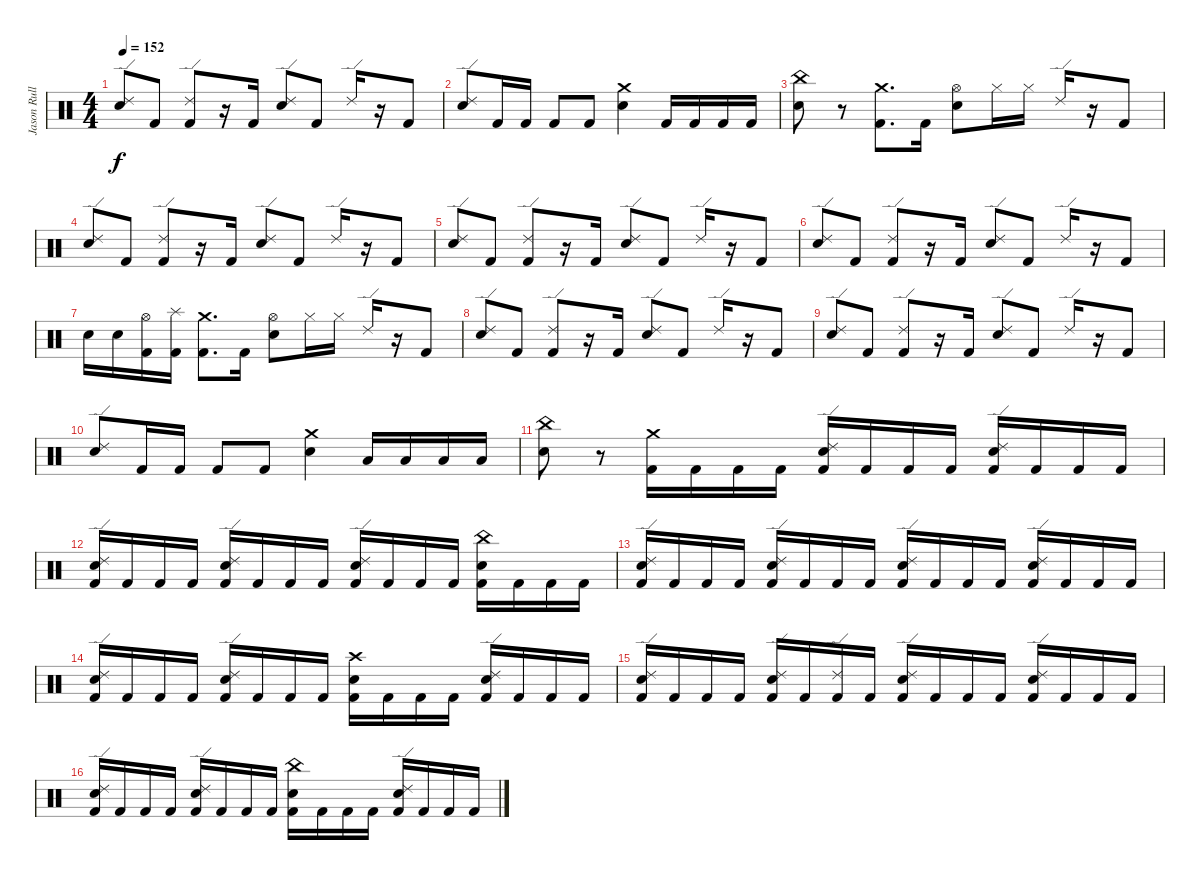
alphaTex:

\track ("Jason Rullo" "Jason Rull") {instrument percussion}
\staff {score}
\articulation defaults
\ts (4 4)
\tempo 152
\clef neutral
\ks c
("Electric Snare (hit)" "Ride (edge) 2").8{dy f} "Kick (hit) 2".8 ("Ride (edge) 2" "Kick (hit) 2").8 r.16 "Kick (hit) 2".16 ("Electric Snare (hit)" "Ride (edge) 2").8 "Kick (hit) 2".8 "Ride (edge) 2".16 r.16 "Kick (hit) 2".8 |
("Electric Snare (hit)" "Ride (edge) 2").8 "Kick (hit) 2".16 "Kick (hit) 2".16 "Kick (hit) 2".8 "Kick (hit) 2".8 ("Crash medium (hit)" "Electric Snare (hit)").4 "Kick (hit) 2".16 "Kick (hit) 2".16 "Kick (hit) 2".16 "Kick (hit) 2".16 |
("China (hit)" "Electric Snare (hit)").8 r.8 ("Crash medium (hit)" "Kick (hit) 2").8{d} "Kick (hit) 2".16 ("Hi-Hat (open)" "Electric Snare (hit)").8 "Hi-Hat (closed)".16 "Hi-Hat (closed)".16 "Ride (edge) 2".16 r.16 "Kick (hit) 2".8 |
("Ride (edge) 2" "Electric Snare (hit)").8 "Kick (hit) 2".8 ("Ride (edge) 2" "Kick (hit) 2").8 r.16 "Kick (hit) 2".16 ("Electric Snare (hit)" "Ride (edge) 2").8 "Kick (hit) 2".8 "Ride (edge) 2".16 r.16 "Kick (hit) 2".8 |
("Electric Snare (hit)" "Ride (edge) 2").8 "Kick (hit) 2".8 ("Ride (edge) 2" "Kick (hit) 2").8 r.16 "Kick (hit) 2".16 ("Electric Snare (hit)" "Ride (edge) 2").8 "Kick (hit) 2".8 "Ride (edge) 2".16 r.16 "Kick (hit) 2".8 |
("Electric Snare (hit)" "Ride (edge) 2").8 "Kick (hit) 2".8 ("Ride (edge) 2" "Kick (hit) 2").8 r.16 "Kick (hit) 2".16 ("Electric Snare (hit)" "Ride (edge) 2").8 "Kick (hit) 2".8 "Ride (edge) 2".16 r.16 "Kick (hit) 2".8 |
"Electric Snare (hit)".16 "Electric Snare (hit)".16 ("Kick (hit) 2" "Hi-Hat (open)").16 ("Kick (hit) 2" "Splash (hit)").16 ("Crash medium (hit)" "Kick (hit) 2").8{d} "Kick (hit) 2".16 ("Hi-Hat (open)" "Electric Snare (hit)").8 "Hi-Hat (closed)".16 "Hi-Hat (closed)".16 "Ride (edge) 2".16 r.16 "Kick (hit) 2".8 |
("Ride (edge) 2" "Electric Snare (hit)").8 "Kick (hit) 2".8 ("Ride (edge) 2" "Kick (hit) 2").8 r.16 "Kick (hit) 2".16 ("Electric Snare (hit)" "Ride (edge) 2").8 "Kick (hit) 2".8 "Ride (edge) 2".16 r.16 "Kick (hit) 2".8 |
("Electric Snare (hit)" "Ride (edge) 2").8 "Kick (hit) 2".8 ("Ride (edge) 2" "Kick (hit) 2").8 r.16 "Kick (hit) 2".16 ("Electric Snare (hit)" "Ride (edge) 2").8 "Kick (hit) 2".8 "Ride (edge) 2".16 r.16 "Kick (hit) 2".8 |
("Electric Snare (hit)" "Ride (edge) 2").8 "Kick (hit) 2".16 "Kick (hit) 2".16 "Kick (hit) 2".8 "Kick (hit) 2".8 ("Crash medium (hit)" "Electric Snare (hit)").4 "Low Tom (hit)".16 "Low Tom (hit)".16 "Low Tom (hit)".16 "Low Tom (hit)".16 |
("China (hit)" "Electric Snare (hit)").8 r.8 ("Crash medium (hit)" "Kick (hit) 2").16 "Kick (hit) 2".16 "Kick (hit) 2".16 "Kick (hit) 2".16 ("Ride (edge) 2" "Electric Snare (hit)" "Kick (hit) 2").16 "Kick (hit) 2".16 "Kick (hit) 2".16 "Kick (hit) 2".16 ("Ride (edge) 2" "Electric Snare (hit)" "Kick (hit) 2").16 "Kick (hit) 2".16 "Kick (hit) 2".16 "Kick (hit) 2".16 |
("Ride (edge) 2" "Electric Snare (hit)" "Kick (hit) 2").16 "Kick (hit) 2".16 "Kick (hit) 2".16 "Kick (hit) 2".16 ("Ride (edge) 2" "Electric Snare (hit)" "Kick (hit) 2").16 "Kick (hit) 2".16 "Kick (hit) 2".16 "Kick (hit) 2".16 ("Ride (edge) 2" "Electric Snare (hit)" "Kick (hit) 2").16 "Kick (hit) 2".16 "Kick (hit) 2".16 "Kick (hit) 2".16 ("China (hit)" "Electric Snare (hit)" "Kick (hit) 2").16 "Kick (hit) 2".16 "Kick (hit) 2".16 "Kick (hit) 2".16 |
("Ride (edge) 2" "Electric Snare (hit)" "Kick (hit) 2").16 "Kick (hit) 2".16 "Kick (hit) 2".16 "Kick (hit) 2".16 ("Ride (edge) 2" "Electric Snare (hit)" "Kick (hit) 2").16 "Kick (hit) 2".16 "Kick (hit) 2".16 "Kick (hit) 2".16 ("Ride (edge) 2" "Electric Snare (hit)" "Kick (hit) 2").16 "Kick (hit) 2".16 "Kick (hit) 2".16 "Kick (hit) 2".16 ("Ride (edge) 2" "Electric Snare (hit)" "Kick (hit) 2").16 "Kick (hit) 2".16 "Kick (hit) 2".16 "Kick (hit) 2".16 |
("Ride (edge) 2" "Electric Snare (hit)" "Kick (hit) 2").16 "Kick (hit) 2".16 "Kick (hit) 2".16 "Kick (hit) 2".16 ("Ride (edge) 2" "Electric Snare (hit)" "Kick (hit) 2").16 "Kick (hit) 2".16 "Kick (hit) 2".16 "Kick (hit) 2".16 ("Crash high (hit)" "Electric Snare (hit)" "Kick (hit) 2").16 "Kick (hit) 2".16 "Kick (hit) 2".16 "Kick (hit) 2".16 ("Ride (edge) 2" "Electric Snare (hit)" "Kick (hit) 2").16 "Kick (hit) 2".16 "Kick (hit) 2".16 "Kick (hit) 2".16 |
("Ride (edge) 2" "Electric Snare (hit)" "Kick (hit) 2").16 "Kick (hit) 2".16 "Kick (hit) 2".16 "Kick (hit) 2".16 ("Ride (edge) 2" "Electric Snare (hit)" "Kick (hit) 2").16 "Kick (hit) 2".16 ("Ride (edge) 2" "Kick (hit) 2").16 "Kick (hit) 2".16 ("Ride (edge) 2" "Electric Snare (hit)" "Kick (hit) 2").16 "Kick (hit) 2".16 "Kick (hit) 2".16 "Kick (hit) 2".16 ("Ride (edge) 2" "Electric Snare (hit)" "Kick (hit) 2").16 "Kick (hit) 2".16 "Kick (hit) 2".16 "Kick (hit) 2".16 |
("Ride (edge) 2" "Electric Snare (hit)" "Kick (hit) 2").16 "Kick (hit) 2".16 "Kick (hit) 2".16 "Kick (hit) 2".16 ("Ride (edge) 2" "Electric Snare (hit)" "Kick (hit) 2").16 "Kick (hit) 2".16 "Kick (hit) 2".16 "Kick (hit) 2".16 ("China (hit)" "Electric Snare (hit)" "Kick (hit) 2").16 "Kick (hit) 2".16 "Kick (hit) 2".16 "Kick (hit) 2".16 ("Ride (edge) 2" "Electric Snare (hit)" "Kick (hit) 2").16 "Kick (hit) 2".16 "Kick (hit) 2".16 "Kick (hit) 2".16
